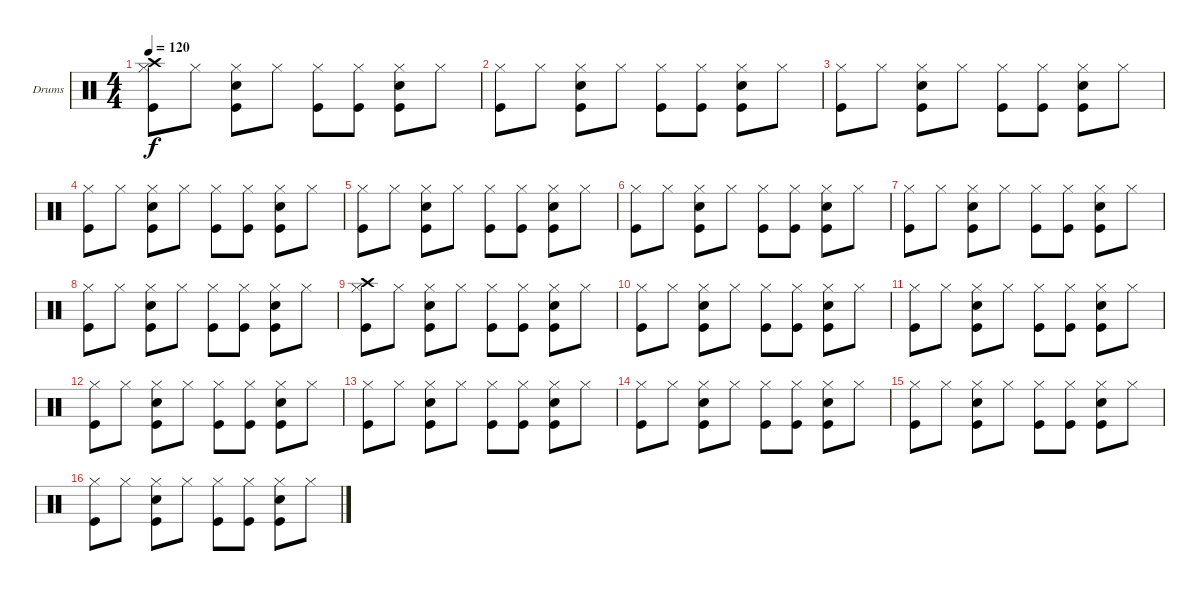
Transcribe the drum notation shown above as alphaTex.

\defaultSystemsLayout 4
\bracketExtendMode groupsimilarinstruments
\firstSystemTrackNameOrientation horizontal
\otherSystemsTrackNameOrientation horizontal
\track ("Drumkit" "Drums") {instrument percussion}
\staff {score}
\articulation defaults
\ts (4 4)
\tempo 120
\clef neutral
\ks c
("Hi-Hat (closed)" "Kick (hit)" "Crash high (hit)").8{dy f} "Hi-Hat (closed)".8 ("Hi-Hat (closed)" "Snare (hit) 2" "Kick (hit)").8 "Hi-Hat (closed)".8 ("Hi-Hat (closed)" "Kick (hit)").8 ("Hi-Hat (closed)" "Kick (hit)").8 ("Hi-Hat (closed)" "Snare (hit) 2" "Kick (hit)").8 "Hi-Hat (closed)".8 |
("Hi-Hat (closed)" "Kick (hit)").8 "Hi-Hat (closed)".8 ("Hi-Hat (closed)" "Snare (hit) 2" "Kick (hit)").8 "Hi-Hat (closed)".8 ("Hi-Hat (closed)" "Kick (hit)").8 ("Hi-Hat (closed)" "Kick (hit)").8 ("Hi-Hat (closed)" "Snare (hit) 2" "Kick (hit)").8 "Hi-Hat (closed)".8 |
("Hi-Hat (closed)" "Kick (hit)").8 "Hi-Hat (closed)".8 ("Hi-Hat (closed)" "Snare (hit) 2" "Kick (hit)").8 "Hi-Hat (closed)".8 ("Hi-Hat (closed)" "Kick (hit)").8 ("Hi-Hat (closed)" "Kick (hit)").8 ("Hi-Hat (closed)" "Snare (hit) 2" "Kick (hit)").8 "Hi-Hat (closed)".8 |
("Hi-Hat (closed)" "Kick (hit)").8 "Hi-Hat (closed)".8 ("Hi-Hat (closed)" "Snare (hit) 2" "Kick (hit)").8 "Hi-Hat (closed)".8 ("Hi-Hat (closed)" "Kick (hit)").8 ("Hi-Hat (closed)" "Kick (hit)").8 ("Hi-Hat (closed)" "Snare (hit) 2" "Kick (hit)").8 "Hi-Hat (closed)".8 |
("Hi-Hat (closed)" "Kick (hit)").8 "Hi-Hat (closed)".8 ("Hi-Hat (closed)" "Snare (hit) 2" "Kick (hit)").8 "Hi-Hat (closed)".8 ("Hi-Hat (closed)" "Kick (hit)").8 ("Hi-Hat (closed)" "Kick (hit)").8 ("Hi-Hat (closed)" "Snare (hit) 2" "Kick (hit)").8 "Hi-Hat (closed)".8 |
("Hi-Hat (closed)" "Kick (hit)").8 "Hi-Hat (closed)".8 ("Hi-Hat (closed)" "Snare (hit) 2" "Kick (hit)").8 "Hi-Hat (closed)".8 ("Hi-Hat (closed)" "Kick (hit)").8 ("Hi-Hat (closed)" "Kick (hit)").8 ("Hi-Hat (closed)" "Snare (hit) 2" "Kick (hit)").8 "Hi-Hat (closed)".8 |
("Hi-Hat (closed)" "Kick (hit)").8 "Hi-Hat (closed)".8 ("Hi-Hat (closed)" "Snare (hit) 2" "Kick (hit)").8 "Hi-Hat (closed)".8 ("Hi-Hat (closed)" "Kick (hit)").8 ("Hi-Hat (closed)" "Kick (hit)").8 ("Hi-Hat (closed)" "Snare (hit) 2" "Kick (hit)").8 "Hi-Hat (closed)".8 |
("Hi-Hat (closed)" "Kick (hit)").8 "Hi-Hat (closed)".8 ("Hi-Hat (closed)" "Snare (hit) 2" "Kick (hit)").8 "Hi-Hat (closed)".8 ("Hi-Hat (closed)" "Kick (hit)").8 ("Hi-Hat (closed)" "Kick (hit)").8 ("Hi-Hat (closed)" "Snare (hit) 2" "Kick (hit)").8 "Hi-Hat (closed)".8 |
("Hi-Hat (closed)" "Kick (hit)" "Crash high (hit)").8 "Hi-Hat (closed)".8 ("Hi-Hat (closed)" "Snare (hit) 2" "Kick (hit)").8 "Hi-Hat (closed)".8 ("Hi-Hat (closed)" "Kick (hit)").8 ("Hi-Hat (closed)" "Kick (hit)").8 ("Hi-Hat (closed)" "Snare (hit) 2" "Kick (hit)").8 "Hi-Hat (closed)".8 |
("Hi-Hat (closed)" "Kick (hit)").8 "Hi-Hat (closed)".8 ("Hi-Hat (closed)" "Snare (hit) 2" "Kick (hit)").8 "Hi-Hat (closed)".8 ("Hi-Hat (closed)" "Kick (hit)").8 ("Hi-Hat (closed)" "Kick (hit)").8 ("Hi-Hat (closed)" "Snare (hit) 2" "Kick (hit)").8 "Hi-Hat (closed)".8 |
("Hi-Hat (closed)" "Kick (hit)").8 "Hi-Hat (closed)".8 ("Hi-Hat (closed)" "Snare (hit) 2" "Kick (hit)").8 "Hi-Hat (closed)".8 ("Hi-Hat (closed)" "Kick (hit)").8 ("Hi-Hat (closed)" "Kick (hit)").8 ("Hi-Hat (closed)" "Snare (hit) 2" "Kick (hit)").8 "Hi-Hat (closed)".8 |
("Hi-Hat (closed)" "Kick (hit)").8 "Hi-Hat (closed)".8 ("Hi-Hat (closed)" "Snare (hit) 2" "Kick (hit)").8 "Hi-Hat (closed)".8 ("Hi-Hat (closed)" "Kick (hit)").8 ("Hi-Hat (closed)" "Kick (hit)").8 ("Hi-Hat (closed)" "Snare (hit) 2" "Kick (hit)").8 "Hi-Hat (closed)".8 |
("Hi-Hat (closed)" "Kick (hit)").8 "Hi-Hat (closed)".8 ("Hi-Hat (closed)" "Snare (hit) 2" "Kick (hit)").8 "Hi-Hat (closed)".8 ("Hi-Hat (closed)" "Kick (hit)").8 ("Hi-Hat (closed)" "Kick (hit)").8 ("Hi-Hat (closed)" "Snare (hit) 2" "Kick (hit)").8 "Hi-Hat (closed)".8 |
("Hi-Hat (closed)" "Kick (hit)").8 "Hi-Hat (closed)".8 ("Hi-Hat (closed)" "Snare (hit) 2" "Kick (hit)").8 "Hi-Hat (closed)".8 ("Hi-Hat (closed)" "Kick (hit)").8 ("Hi-Hat (closed)" "Kick (hit)").8 ("Hi-Hat (closed)" "Snare (hit) 2" "Kick (hit)").8 "Hi-Hat (closed)".8 |
("Hi-Hat (closed)" "Kick (hit)").8 "Hi-Hat (closed)".8 ("Hi-Hat (closed)" "Snare (hit) 2" "Kick (hit)").8 "Hi-Hat (closed)".8 ("Hi-Hat (closed)" "Kick (hit)").8 ("Hi-Hat (closed)" "Kick (hit)").8 ("Hi-Hat (closed)" "Snare (hit) 2" "Kick (hit)").8 "Hi-Hat (closed)".8 |
("Hi-Hat (closed)" "Kick (hit)").8 "Hi-Hat (closed)".8 ("Hi-Hat (closed)" "Snare (hit) 2" "Kick (hit)").8 "Hi-Hat (closed)".8 ("Hi-Hat (closed)" "Kick (hit)").8 ("Hi-Hat (closed)" "Kick (hit)").8 ("Hi-Hat (closed)" "Snare (hit) 2" "Kick (hit)").8 "Hi-Hat (closed)".8
